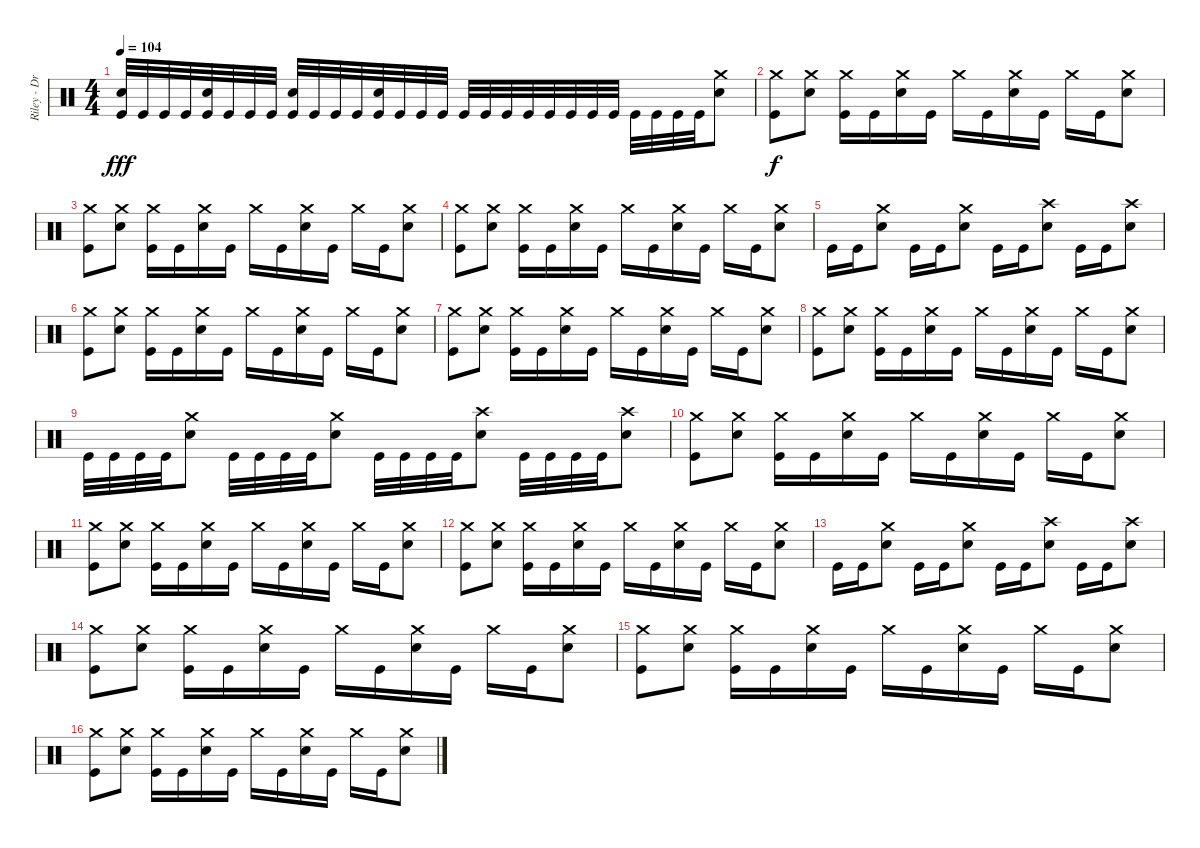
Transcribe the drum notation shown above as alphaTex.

\track ("Riley - Drums" "Riley - Dr") {instrument percussion}
\staff {score}
\articulation defaults
\ts (4 4)
\tempo 104
\clef neutral
\ks c
("Snare (hit) 2" "Kick (hit)").32{dy fff} "Kick (hit)".32 "Kick (hit)".32 "Kick (hit)".32 ("Snare (hit) 2" "Kick (hit)").32 "Kick (hit)".32 "Kick (hit)".32 "Kick (hit)".32 ("Snare (hit) 2" "Kick (hit)").32 "Kick (hit)".32 "Kick (hit)".32 "Kick (hit)".32 ("Snare (hit) 2" "Kick (hit)").32 "Kick (hit)".32 "Kick (hit)".32 "Kick (hit)".32 "Kick (hit)".32 "Kick (hit)".32 "Kick (hit)".32 "Kick (hit)".32 "Kick (hit)".32 "Kick (hit)".32 "Kick (hit)".32 "Kick (hit)".32 "Kick (hit)".32 "Kick (hit)".32 "Kick (hit)".32 "Kick (hit)".32 ("Crash medium (hit)" "Snare (hit) 2").8 |
("Crash medium (hit)" "Kick (hit)").8{dy f} ("Crash medium (hit)" "Snare (hit) 2").8 ("Crash medium (hit)" "Kick (hit)").16 "Kick (hit)".16 ("Crash medium (hit)" "Snare (hit) 2").16 "Kick (hit)".16 "Crash medium (hit)".16 "Kick (hit)".16 ("Crash medium (hit)" "Snare (hit) 2").16 "Kick (hit)".16 "Crash medium (hit)".16 "Kick (hit)".16 ("Crash medium (hit)" "Snare (hit) 2").8 |
("Crash medium (hit)" "Kick (hit)").8 ("Crash medium (hit)" "Snare (hit) 2").8 ("Crash medium (hit)" "Kick (hit)").16 "Kick (hit)".16 ("Crash medium (hit)" "Snare (hit) 2").16 "Kick (hit)".16 "Crash medium (hit)".16 "Kick (hit)".16 ("Crash medium (hit)" "Snare (hit) 2").16 "Kick (hit)".16 "Crash medium (hit)".16 "Kick (hit)".16 ("Crash medium (hit)" "Snare (hit) 2").8 |
("Crash medium (hit)" "Kick (hit)").8 ("Crash medium (hit)" "Snare (hit) 2").8 ("Crash medium (hit)" "Kick (hit)").16 "Kick (hit)".16 ("Crash medium (hit)" "Snare (hit) 2").16 "Kick (hit)".16 "Crash medium (hit)".16 "Kick (hit)".16 ("Crash medium (hit)" "Snare (hit) 2").16 "Kick (hit)".16 "Crash medium (hit)".16 "Kick (hit)".16 ("Crash medium (hit)" "Snare (hit) 2").8 |
"Kick (hit)".16 "Kick (hit)".16 ("Crash medium (hit)" "Snare (hit) 2").8 "Kick (hit)".16 "Kick (hit)".16 ("Crash medium (hit)" "Snare (hit) 2").8 "Kick (hit)".16 "Kick (hit)".16 ("Crash high (hit)" "Snare (hit) 2").8 "Kick (hit)".16 "Kick (hit)".16 ("Crash high (hit)" "Snare (hit) 2").8 |
("Crash medium (hit)" "Kick (hit)").8 ("Crash medium (hit)" "Snare (hit) 2").8 ("Crash medium (hit)" "Kick (hit)").16 "Kick (hit)".16 ("Crash medium (hit)" "Snare (hit) 2").16 "Kick (hit)".16 "Crash medium (hit)".16 "Kick (hit)".16 ("Crash medium (hit)" "Snare (hit) 2").16 "Kick (hit)".16 "Crash medium (hit)".16 "Kick (hit)".16 ("Crash medium (hit)" "Snare (hit) 2").8 |
("Crash medium (hit)" "Kick (hit)").8 ("Crash medium (hit)" "Snare (hit) 2").8 ("Crash medium (hit)" "Kick (hit)").16 "Kick (hit)".16 ("Crash medium (hit)" "Snare (hit) 2").16 "Kick (hit)".16 "Crash medium (hit)".16 "Kick (hit)".16 ("Crash medium (hit)" "Snare (hit) 2").16 "Kick (hit)".16 "Crash medium (hit)".16 "Kick (hit)".16 ("Crash medium (hit)" "Snare (hit) 2").8 |
("Crash medium (hit)" "Kick (hit)").8 ("Crash medium (hit)" "Snare (hit) 2").8 ("Crash medium (hit)" "Kick (hit)").16 "Kick (hit)".16 ("Crash medium (hit)" "Snare (hit) 2").16 "Kick (hit)".16 "Crash medium (hit)".16 "Kick (hit)".16 ("Crash medium (hit)" "Snare (hit) 2").16 "Kick (hit)".16 "Crash medium (hit)".16 "Kick (hit)".16 ("Crash medium (hit)" "Snare (hit) 2").8 |
"Kick (hit)".32 "Kick (hit)".32 "Kick (hit)".32 "Kick (hit)".32 ("Crash medium (hit)" "Snare (hit) 2").8 "Kick (hit)".32 "Kick (hit)".32 "Kick (hit)".32 "Kick (hit)".32 ("Crash medium (hit)" "Snare (hit) 2").8 "Kick (hit)".32 "Kick (hit)".32 "Kick (hit)".32 "Kick (hit)".32 ("Crash high (hit)" "Snare (hit) 2").8 "Kick (hit)".32 "Kick (hit)".32 "Kick (hit)".32 "Kick (hit)".32 ("Crash high (hit)" "Snare (hit) 2").8 |
("Crash medium (hit)" "Kick (hit)").8 ("Crash medium (hit)" "Snare (hit) 2").8 ("Crash medium (hit)" "Kick (hit)").16 "Kick (hit)".16 ("Crash medium (hit)" "Snare (hit) 2").16 "Kick (hit)".16 "Crash medium (hit)".16 "Kick (hit)".16 ("Crash medium (hit)" "Snare (hit) 2").16 "Kick (hit)".16 "Crash medium (hit)".16 "Kick (hit)".16 ("Crash medium (hit)" "Snare (hit) 2").8 |
("Crash medium (hit)" "Kick (hit)").8 ("Crash medium (hit)" "Snare (hit) 2").8 ("Crash medium (hit)" "Kick (hit)").16 "Kick (hit)".16 ("Crash medium (hit)" "Snare (hit) 2").16 "Kick (hit)".16 "Crash medium (hit)".16 "Kick (hit)".16 ("Crash medium (hit)" "Snare (hit) 2").16 "Kick (hit)".16 "Crash medium (hit)".16 "Kick (hit)".16 ("Crash medium (hit)" "Snare (hit) 2").8 |
("Crash medium (hit)" "Kick (hit)").8 ("Crash medium (hit)" "Snare (hit) 2").8 ("Crash medium (hit)" "Kick (hit)").16 "Kick (hit)".16 ("Crash medium (hit)" "Snare (hit) 2").16 "Kick (hit)".16 "Crash medium (hit)".16 "Kick (hit)".16 ("Crash medium (hit)" "Snare (hit) 2").16 "Kick (hit)".16 "Crash medium (hit)".16 "Kick (hit)".16 ("Crash medium (hit)" "Snare (hit) 2").8 |
"Kick (hit)".16 "Kick (hit)".16 ("Crash medium (hit)" "Snare (hit) 2").8 "Kick (hit)".16 "Kick (hit)".16 ("Crash medium (hit)" "Snare (hit) 2").8 "Kick (hit)".16 "Kick (hit)".16 ("Crash high (hit)" "Snare (hit) 2").8 "Kick (hit)".16 "Kick (hit)".16 ("Crash high (hit)" "Snare (hit) 2").8 |
("Crash medium (hit)" "Kick (hit)").8 ("Crash medium (hit)" "Snare (hit) 2").8 ("Crash medium (hit)" "Kick (hit)").16 "Kick (hit)".16 ("Crash medium (hit)" "Snare (hit) 2").16 "Kick (hit)".16 "Crash medium (hit)".16 "Kick (hit)".16 ("Crash medium (hit)" "Snare (hit) 2").16 "Kick (hit)".16 "Crash medium (hit)".16 "Kick (hit)".16 ("Crash medium (hit)" "Snare (hit) 2").8 |
("Crash medium (hit)" "Kick (hit)").8 ("Crash medium (hit)" "Snare (hit) 2").8 ("Crash medium (hit)" "Kick (hit)").16 "Kick (hit)".16 ("Crash medium (hit)" "Snare (hit) 2").16 "Kick (hit)".16 "Crash medium (hit)".16 "Kick (hit)".16 ("Crash medium (hit)" "Snare (hit) 2").16 "Kick (hit)".16 "Crash medium (hit)".16 "Kick (hit)".16 ("Crash medium (hit)" "Snare (hit) 2").8 |
("Crash medium (hit)" "Kick (hit)").8 ("Crash medium (hit)" "Snare (hit) 2").8 ("Crash medium (hit)" "Kick (hit)").16 "Kick (hit)".16 ("Crash medium (hit)" "Snare (hit) 2").16 "Kick (hit)".16 "Crash medium (hit)".16 "Kick (hit)".16 ("Crash medium (hit)" "Snare (hit) 2").16 "Kick (hit)".16 "Crash medium (hit)".16 "Kick (hit)".16 ("Crash medium (hit)" "Snare (hit) 2").8
